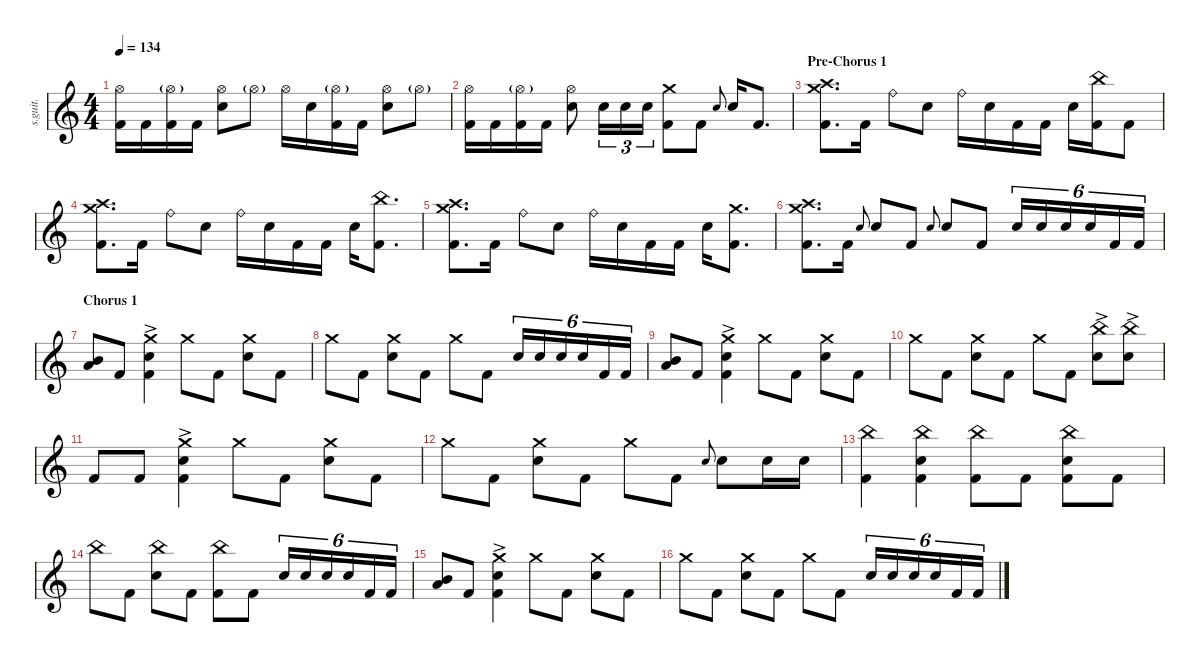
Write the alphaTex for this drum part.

\defaultSystemsLayout 4
\hideDynamics
\bracketExtendMode nobrackets
\track ("Joey Jordison RIP" "s.guit.") {instrument percussion}
\staff {score}
\articulation defaults
\ts (4 4)
\tempo 134
\clef g2
\ks c
("Hi-Hat (open)" "Kick (hit) 2").16{dy fff} "Kick (hit) 2".16 ("Hi-Hat (open)"{g} "Kick (hit) 2").16 "Kick (hit) 2".16 ("Hi-Hat (open)" "Snare (hit) 2").8 "Hi-Hat (open)"{g}.8 "Hi-Hat (open)".16 "Snare (hit) 2".16 ("Hi-Hat (open)"{g} "Kick (hit) 2").16 "Kick (hit) 2".16 ("Hi-Hat (open)" "Snare (hit) 2").8 "Hi-Hat (open)"{g}.8 |
("Hi-Hat (open)" "Kick (hit) 2").16 "Kick (hit) 2".16 ("Hi-Hat (open)"{g} "Kick (hit) 2").16 "Kick (hit) 2".16 ("Hi-Hat (open)" "Snare (hit) 2").8 "Snare (hit) 2".16{tu (3 2)} "Snare (hit) 2".16{tu (3 2)} "Snare (hit) 2".16{tu (3 2)} ("Crash medium (hit)" "Kick (hit) 2").8 "Kick (hit) 2".8 "Snare (hit) 2".8{gr onbeat} "Snare (hit) 2".16 "Kick (hit) 2".8{d} |
\section ("" "Pre-Chorus 1")
("Crash high (hit)" "Kick (hit) 2" "Crash medium (hit)").8{d} "Kick (hit) 2".16 "Ride (bell)".8 "Snare (hit) 2".8 "Ride (bell)".16 "Snare (hit) 2".16 "Kick (hit) 2".16 "Kick (hit) 2".16 "Snare (hit) 2".16 ("China (hit)" "Kick (hit) 2").16 "Kick (hit) 2".8 |
("Crash medium (hit)" "Kick (hit) 2" "Crash high (hit)").8{d} "Kick (hit) 2".16 "Ride (bell)".8 "Snare (hit) 2".8 "Ride (bell)".16 "Snare (hit) 2".16 "Kick (hit) 2".16 "Kick (hit) 2".16 "Snare (hit) 2".16 ("China (hit)" "Kick (hit) 2").8{d} |
("Crash medium (hit)" "Kick (hit) 2" "Crash high (hit)").8{d} "Kick (hit) 2".16 "Ride (bell)".8 "Snare (hit) 2".8 "Ride (bell)".16 "Snare (hit) 2".16 "Kick (hit) 2".16 "Kick (hit) 2".16 "Snare (hit) 2".16 ("Crash medium (hit)" "Kick (hit) 2").8{d} |
("Crash high (hit)" "Kick (hit) 2" "Crash medium (hit)").8{d} "Kick (hit) 2".16 "Snare (hit) 2".8{gr onbeat} "Snare (hit) 2".8 "Kick (hit) 2".8 "Snare (hit) 2".8{gr onbeat} "Snare (hit) 2".8 "Kick (hit) 2".8 "Snare (hit) 2".16{tu (6 4)} "Snare (hit) 2".16{tu (6 4)} "Snare (hit) 2".16{tu (6 4)} "Snare (hit) 2".16{tu (6 4)} "Kick (hit) 2".16{tu (6 4)} "Kick (hit) 2".16{tu (6 4)} |
\section ("" "Chorus 1")
("Mid Tom (hit)" "Low Floor Tom (hit)").8 "Kick (hit) 2".8 ("Crash medium (hit)"{ac} "Kick (hit) 2"{ac} "Snare (hit) 2"{ac}).4 "Crash medium (hit)".8 "Kick (hit) 2".8 ("Crash medium (hit)" "Snare (hit) 2").8 "Kick (hit) 2".8 |
"Crash medium (hit)".8 "Kick (hit) 2".8 ("Crash medium (hit)" "Snare (hit) 2").8 "Kick (hit) 2".8 "Crash medium (hit)".8 "Kick (hit) 2".8 "Snare (hit) 2".16{tu (6 4)} "Snare (hit) 2".16{tu (6 4)} "Snare (hit) 2".16{tu (6 4)} "Snare (hit) 2".16{tu (6 4)} "Kick (hit) 2".16{tu (6 4)} "Kick (hit) 2".16{tu (6 4)} |
("Mid Tom (hit)" "Low Floor Tom (hit)").8 "Kick (hit) 2".8 ("Crash medium (hit)"{ac} "Kick (hit) 2"{ac} "Snare (hit) 2"{ac}).4 "Crash medium (hit)".8 "Kick (hit) 2".8 ("Crash medium (hit)" "Snare (hit) 2").8 "Kick (hit) 2".8 |
"Crash medium (hit)".8 "Kick (hit) 2".8 ("Crash medium (hit)" "Snare (hit) 2").8 "Kick (hit) 2".8 "Crash medium (hit)".8 "Kick (hit) 2".8 ("China (hit)"{ac} "Snare (hit) 2"{ac}).8 ("China (hit)"{ac} "Snare (hit) 2"{ac}).8 |
"Kick (hit) 2".8 "Kick (hit) 2".8 ("Crash medium (hit)"{ac} "Kick (hit) 2"{ac} "Snare (hit) 2"{ac}).4 "Crash medium (hit)".8 "Kick (hit) 2".8 ("Crash medium (hit)" "Snare (hit) 2").8 "Kick (hit) 2".8 |
"Crash medium (hit)".8 "Kick (hit) 2".8 ("Crash medium (hit)" "Snare (hit) 2").8 "Kick (hit) 2".8 "Crash medium (hit)".8 "Kick (hit) 2".8 "Snare (hit) 2".8{gr onbeat} "Snare (hit) 2".8 "Snare (hit) 2".16 "Snare (hit) 2".16 |
("China (hit)" "Kick (hit) 2").4 ("China (hit)" "Kick (hit) 2" "Snare (hit) 2").4 ("China (hit)" "Kick (hit) 2").8 "Kick (hit) 2".8 ("China (hit)" "Kick (hit) 2" "Snare (hit) 2").8 "Kick (hit) 2".8 |
"China (hit)".8 "Kick (hit) 2".8 ("China (hit)" "Snare (hit) 2").8 "Kick (hit) 2".8 ("China (hit)" "Kick (hit) 2").8 "Kick (hit) 2".8 "Snare (hit) 2".16{tu (6 4)} "Snare (hit) 2".16{tu (6 4)} "Snare (hit) 2".16{tu (6 4)} "Snare (hit) 2".16{tu (6 4)} "Kick (hit) 2".16{tu (6 4)} "Kick (hit) 2".16{tu (6 4)} |
("Mid Tom (hit)" "Low Floor Tom (hit)").8 "Kick (hit) 2".8 ("Crash medium (hit)"{ac} "Kick (hit) 2"{ac} "Snare (hit) 2"{ac}).4 "Crash medium (hit)".8 "Kick (hit) 2".8 ("Crash medium (hit)" "Snare (hit) 2").8 "Kick (hit) 2".8 |
"Crash medium (hit)".8 "Kick (hit) 2".8 ("Crash medium (hit)" "Snare (hit) 2").8 "Kick (hit) 2".8 "Crash medium (hit)".8 "Kick (hit) 2".8 "Snare (hit) 2".16{tu (6 4)} "Snare (hit) 2".16{tu (6 4)} "Snare (hit) 2".16{tu (6 4)} "Snare (hit) 2".16{tu (6 4)} "Kick (hit) 2".16{tu (6 4)} "Kick (hit) 2".16{tu (6 4)}
